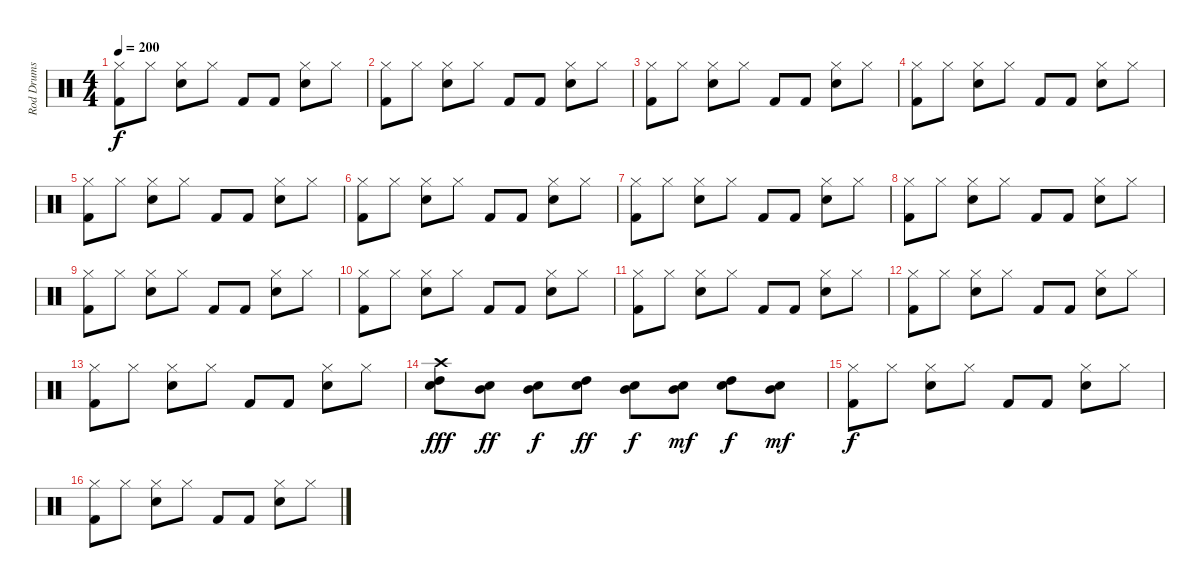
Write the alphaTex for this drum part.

\track ("Rod Drums" "Rod Drums") {instrument percussion}
\staff {score}
\articulation defaults
\ts (4 4)
\tempo 200
\clef neutral
\ks c
("Kick (hit) 2" "Hi-Hat (closed)").8{dy f} "Hi-Hat (closed)".8 ("Snare (hit) 2" "Hi-Hat (closed)").8 "Hi-Hat (closed)".8 "Kick (hit) 2".8 "Kick (hit) 2".8 ("Snare (hit) 2" "Hi-Hat (closed)").8 "Hi-Hat (closed)".8 |
("Kick (hit) 2" "Hi-Hat (closed)").8 "Hi-Hat (closed)".8 ("Snare (hit) 2" "Hi-Hat (closed)").8 "Hi-Hat (closed)".8 "Kick (hit) 2".8 "Kick (hit) 2".8 ("Snare (hit) 2" "Hi-Hat (closed)").8 "Hi-Hat (closed)".8 |
("Kick (hit) 2" "Hi-Hat (closed)").8 "Hi-Hat (closed)".8 ("Snare (hit) 2" "Hi-Hat (closed)").8 "Hi-Hat (closed)".8 "Kick (hit) 2".8 "Kick (hit) 2".8 ("Snare (hit) 2" "Hi-Hat (closed)").8 "Hi-Hat (closed)".8 |
("Kick (hit) 2" "Hi-Hat (closed)").8 "Hi-Hat (closed)".8 ("Snare (hit) 2" "Hi-Hat (closed)").8 "Hi-Hat (closed)".8 "Kick (hit) 2".8 "Kick (hit) 2".8 ("Snare (hit) 2" "Hi-Hat (closed)").8 "Hi-Hat (closed)".8 |
("Kick (hit) 2" "Hi-Hat (closed)").8 "Hi-Hat (closed)".8 ("Snare (hit) 2" "Hi-Hat (closed)").8 "Hi-Hat (closed)".8 "Kick (hit) 2".8 "Kick (hit) 2".8 ("Snare (hit) 2" "Hi-Hat (closed)").8 "Hi-Hat (closed)".8 |
("Kick (hit) 2" "Hi-Hat (closed)").8 "Hi-Hat (closed)".8 ("Snare (hit) 2" "Hi-Hat (closed)").8 "Hi-Hat (closed)".8 "Kick (hit) 2".8 "Kick (hit) 2".8 ("Snare (hit) 2" "Hi-Hat (closed)").8 "Hi-Hat (closed)".8 |
("Kick (hit) 2" "Hi-Hat (closed)").8 "Hi-Hat (closed)".8 ("Snare (hit) 2" "Hi-Hat (closed)").8 "Hi-Hat (closed)".8 "Kick (hit) 2".8 "Kick (hit) 2".8 ("Snare (hit) 2" "Hi-Hat (closed)").8 "Hi-Hat (closed)".8 |
("Kick (hit) 2" "Hi-Hat (closed)").8 "Hi-Hat (closed)".8 ("Snare (hit) 2" "Hi-Hat (closed)").8 "Hi-Hat (closed)".8 "Kick (hit) 2".8 "Kick (hit) 2".8 ("Snare (hit) 2" "Hi-Hat (closed)").8 "Hi-Hat (closed)".8 |
("Kick (hit) 2" "Hi-Hat (closed)").8 "Hi-Hat (closed)".8 ("Snare (hit) 2" "Hi-Hat (closed)").8 "Hi-Hat (closed)".8 "Kick (hit) 2".8 "Kick (hit) 2".8 ("Snare (hit) 2" "Hi-Hat (closed)").8 "Hi-Hat (closed)".8 |
("Kick (hit) 2" "Hi-Hat (closed)").8 "Hi-Hat (closed)".8 ("Snare (hit) 2" "Hi-Hat (closed)").8 "Hi-Hat (closed)".8 "Kick (hit) 2".8 "Kick (hit) 2".8 ("Snare (hit) 2" "Hi-Hat (closed)").8 "Hi-Hat (closed)".8 |
("Kick (hit) 2" "Hi-Hat (closed)").8 "Hi-Hat (closed)".8 ("Snare (hit) 2" "Hi-Hat (closed)").8 "Hi-Hat (closed)".8 "Kick (hit) 2".8 "Kick (hit) 2".8 ("Snare (hit) 2" "Hi-Hat (closed)").8 "Hi-Hat (closed)".8 |
("Kick (hit) 2" "Hi-Hat (closed)").8 "Hi-Hat (closed)".8 ("Snare (hit) 2" "Hi-Hat (closed)").8 "Hi-Hat (closed)".8 "Kick (hit) 2".8 "Kick (hit) 2".8 ("Snare (hit) 2" "Hi-Hat (closed)").8 "Hi-Hat (closed)".8 |
("Kick (hit) 2" "Hi-Hat (closed)").8 "Hi-Hat (closed)".8 ("Snare (hit) 2" "Hi-Hat (closed)").8 "Hi-Hat (closed)".8 "Kick (hit) 2".8 "Kick (hit) 2".8 ("Snare (hit) 2" "Hi-Hat (closed)").8 "Hi-Hat (closed)".8 |
("Snare (hit) 2" "High Tom (hit)" "Crash high (hit)").8{dy fff} ("Snare (hit) 2" "Mid Tom (hit)").8{dy ff} ("Snare (hit) 2" "Mid Tom (hit)").8{dy f} ("Snare (hit) 2" "High Tom (hit)").8{dy ff} ("Snare (hit) 2" "Mid Tom (hit)").8{dy f} ("Snare (hit) 2" "Mid Tom (hit)").8{dy mf} ("Snare (hit) 2" "High Tom (hit)").8{dy f} ("Snare (hit) 2" "Mid Tom (hit)").8{dy mf} |
("Kick (hit) 2" "Hi-Hat (closed)").8{dy f} "Hi-Hat (closed)".8 ("Snare (hit) 2" "Hi-Hat (closed)").8 "Hi-Hat (closed)".8 "Kick (hit) 2".8 "Kick (hit) 2".8 ("Snare (hit) 2" "Hi-Hat (closed)").8 "Hi-Hat (closed)".8 |
("Kick (hit) 2" "Hi-Hat (closed)").8 "Hi-Hat (closed)".8 ("Snare (hit) 2" "Hi-Hat (closed)").8 "Hi-Hat (closed)".8 "Kick (hit) 2".8 "Kick (hit) 2".8 ("Snare (hit) 2" "Hi-Hat (closed)").8 "Hi-Hat (closed)".8
